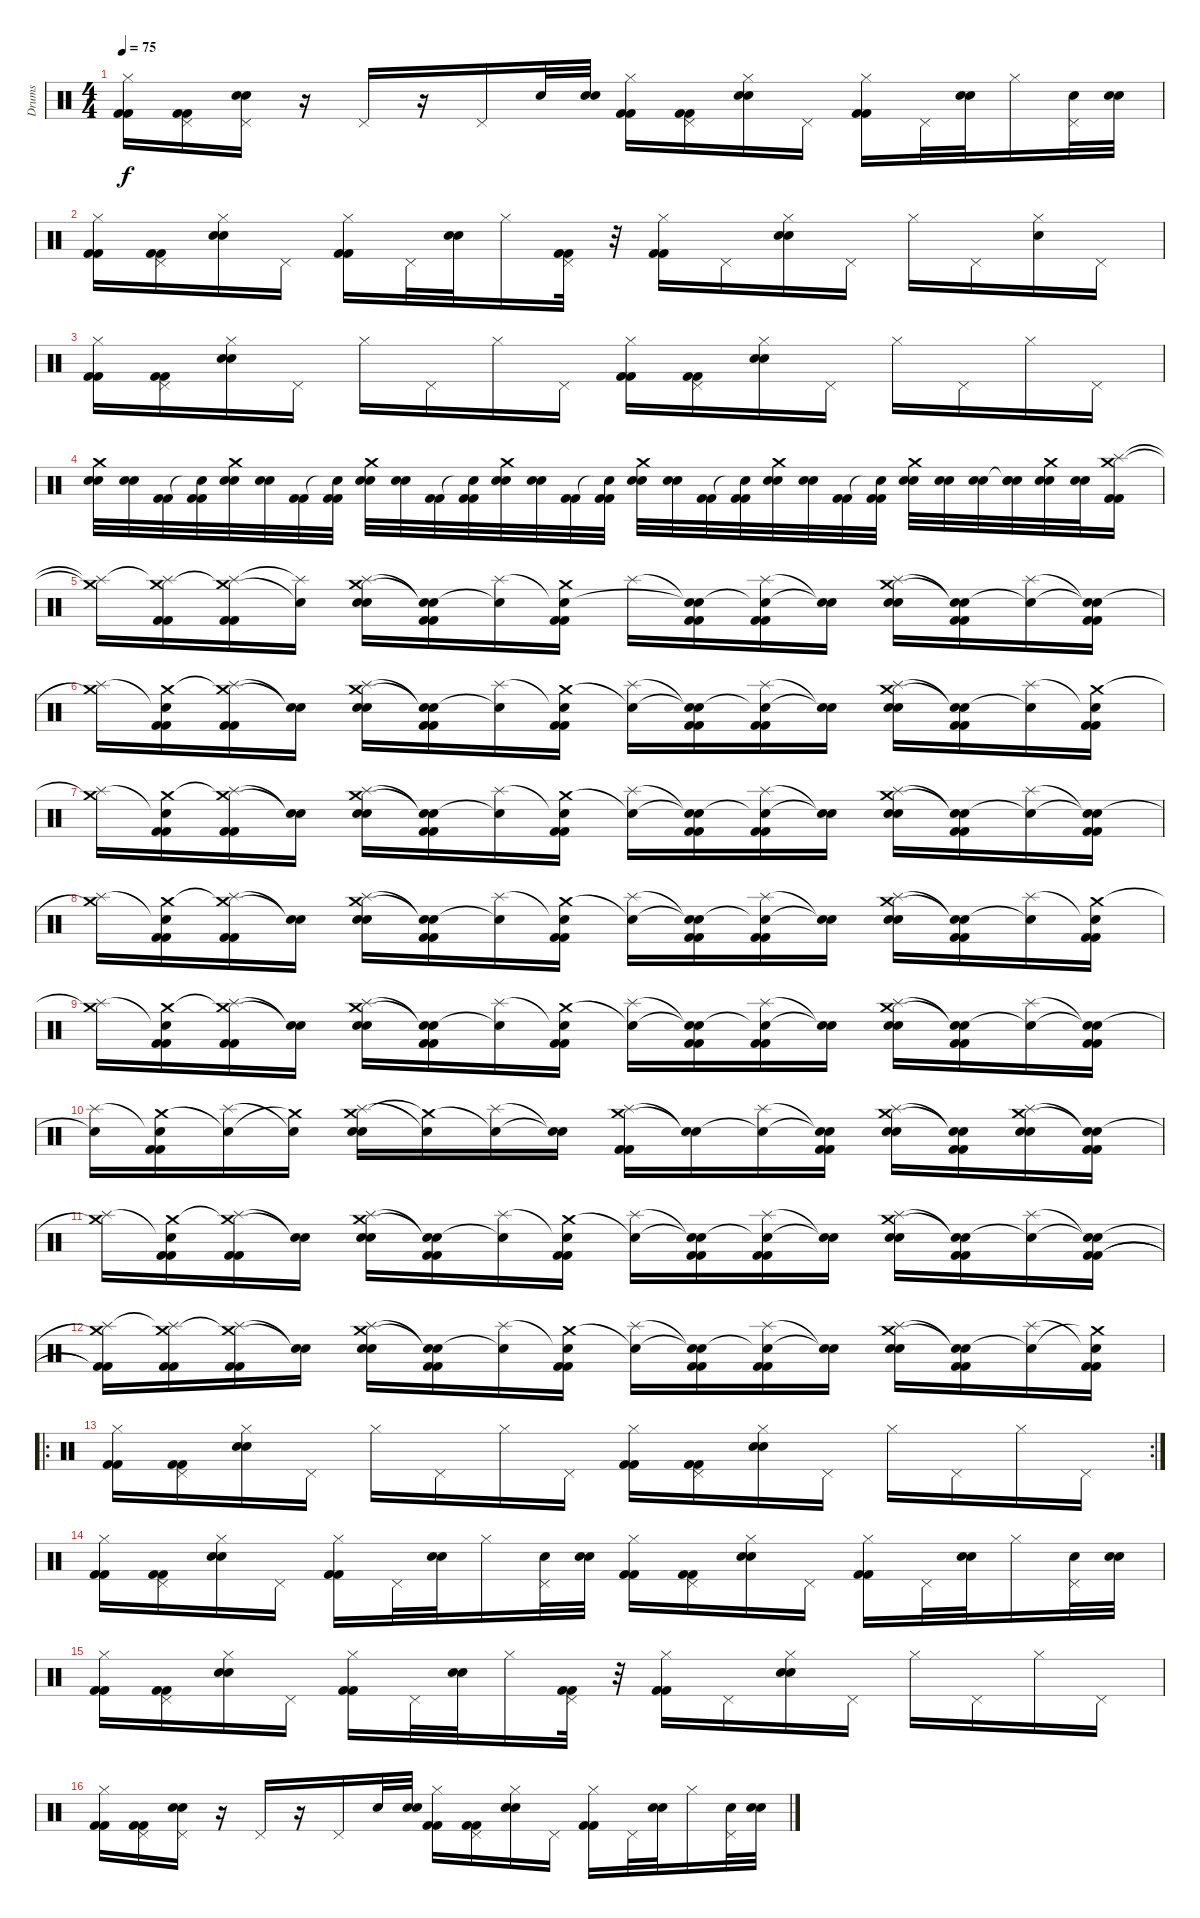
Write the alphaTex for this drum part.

\track ("Drums" "Drums") {instrument percussion}
\staff {score}
\articulation defaults
\ts (4 4)
\tempo 75
\clef neutral
\ks c
("Hi-Hat (closed)" "Kick (hit) 2" "Kick (hit) 2").16{dy f} ("Pedal Hi-Hat (hit)" "Kick (hit) 2" "Kick (hit) 2").16 ("Pedal Hi-Hat (hit)" "Electric Snare (hit)" "Electric Snare (hit)").16 r.16 "Pedal Hi-Hat (hit)".16 r.16 "Pedal Hi-Hat (hit)".16 "Electric Snare (hit)".32 ("Electric Snare (hit)" "Electric Snare (hit)").32 ("Hi-Hat (closed)" "Kick (hit) 2" "Kick (hit) 2").16 ("Pedal Hi-Hat (hit)" "Kick (hit) 2" "Kick (hit) 2").16 ("Hi-Hat (closed)" "Electric Snare (hit)" "Electric Snare (hit)").16 "Pedal Hi-Hat (hit)".16 ("Hi-Hat (closed)" "Kick (hit) 2" "Kick (hit) 2").16 "Pedal Hi-Hat (hit)".32 ("Electric Snare (hit)" "Electric Snare (hit)").32 "Hi-Hat (closed)".16 ("Pedal Hi-Hat (hit)" "Electric Snare (hit)").32 ("Electric Snare (hit)" "Electric Snare (hit)").32 |
("Hi-Hat (closed)" "Kick (hit) 2" "Kick (hit) 2").16 ("Pedal Hi-Hat (hit)" "Kick (hit) 2" "Kick (hit) 2").16 ("Hi-Hat (closed)" "Electric Snare (hit)" "Electric Snare (hit)").16 "Pedal Hi-Hat (hit)".16 ("Hi-Hat (closed)" "Kick (hit) 2" "Kick (hit) 2").16 "Pedal Hi-Hat (hit)".32 ("Electric Snare (hit)" "Electric Snare (hit)").32 "Hi-Hat (closed)".16 ("Pedal Hi-Hat (hit)" "Kick (hit) 2" "Kick (hit) 2").32 r.32 ("Hi-Hat (closed)" "Kick (hit) 2" "Kick (hit) 2").16 "Pedal Hi-Hat (hit)".16 ("Hi-Hat (closed)" "Electric Snare (hit)" "Electric Snare (hit)").16 "Pedal Hi-Hat (hit)".16 "Hi-Hat (closed)".16 "Pedal Hi-Hat (hit)".16 ("Hi-Hat (closed)" "Electric Snare (hit)").16 "Pedal Hi-Hat (hit)".16 |
("Hi-Hat (closed)" "Kick (hit) 2" "Kick (hit) 2").16 ("Pedal Hi-Hat (hit)" "Kick (hit) 2" "Kick (hit) 2").16 ("Hi-Hat (closed)" "Electric Snare (hit)" "Electric Snare (hit)").16 "Pedal Hi-Hat (hit)".16 "Hi-Hat (closed)".16 "Pedal Hi-Hat (hit)".16 "Hi-Hat (closed)".16 "Pedal Hi-Hat (hit)".16 ("Hi-Hat (closed)" "Kick (hit) 2" "Kick (hit) 2").16 ("Pedal Hi-Hat (hit)" "Kick (hit) 2" "Kick (hit) 2").16 ("Hi-Hat (closed)" "Electric Snare (hit)" "Electric Snare (hit)").16 "Pedal Hi-Hat (hit)".16 "Hi-Hat (closed)".16 "Pedal Hi-Hat (hit)".16 "Hi-Hat (closed)".16 "Pedal Hi-Hat (hit)".16 |
("Crash medium (hit)" "Electric Snare (hit)" "Electric Snare (hit)").32 ("Electric Snare (hit)" "Electric Snare (hit)").32 ("Kick (hit) 2" "Kick (hit) 2").32 ("Snare (hit)"{t} "Kick (hit) 2" "Kick (hit) 2").32 ("Crash medium (hit)" "Electric Snare (hit)" "Electric Snare (hit)").32 ("Electric Snare (hit)" "Electric Snare (hit)").32 ("Kick (hit) 2" "Kick (hit) 2").32 ("Snare (hit)"{t} "Kick (hit) 2" "Kick (hit) 2").32 ("Crash medium (hit)" "Electric Snare (hit)" "Electric Snare (hit)").32 ("Electric Snare (hit)" "Electric Snare (hit)").32 ("Kick (hit) 2" "Kick (hit) 2").32 ("Snare (hit)"{t} "Kick (hit) 2" "Kick (hit) 2").32 ("Crash medium (hit)" "Electric Snare (hit)" "Electric Snare (hit)").32 ("Electric Snare (hit)" "Electric Snare (hit)").32 ("Kick (hit) 2" "Kick (hit) 2").32 ("Snare (hit)"{t} "Kick (hit) 2" "Kick (hit) 2").32 ("Crash medium (hit)" "Electric Snare (hit)" "Electric Snare (hit)").32 ("Electric Snare (hit)" "Electric Snare (hit)").32 ("Kick (hit) 2" "Kick (hit) 2").32 ("Snare (hit)"{t} "Kick (hit) 2" "Kick (hit) 2").32 ("Crash medium (hit)" "Electric Snare (hit)" "Electric Snare (hit)").32 ("Electric Snare (hit)" "Electric Snare (hit)").32 ("Kick (hit) 2" "Kick (hit) 2").32 ("Snare (hit)"{t} "Kick (hit) 2" "Kick (hit) 2").32 ("Crash medium (hit)" "Electric Snare (hit)" "Electric Snare (hit)").32 ("Electric Snare (hit)" "Electric Snare (hit)").32 ("Electric Snare (hit)" "Electric Snare (hit)").32 ("Snare (hit)"{t} "Electric Snare (hit)" "Electric Snare (hit)").32 ("Crash medium (hit)" "Electric Snare (hit)" "Electric Snare (hit)").32 ("Electric Snare (hit)" "Electric Snare (hit)").32 ("Crash medium (hit)" "Splash (hit)" "Kick (hit) 2" "Kick (hit) 2").16 |
("Crash medium (hit)"{t} "Splash (hit)"{t}).16 ("Crash medium (hit)" "Splash (hit)"{t} "Kick (hit) 2" "Kick (hit) 2").16 ("Crash medium (hit)"{t} "Splash (hit)" "Kick (hit) 2" "Kick (hit) 2").16 ("Snare (hit)"{t} "Splash (hit)"{t}).16 ("Crash medium (hit)" "Splash (hit)" "Electric Snare (hit)" "Electric Snare (hit)").16 ("Snare (hit)"{t} "Snare (hit)"{t} "Kick (hit) 2" "Kick (hit) 2").16 ("Snare (hit)"{t} "Splash (hit)").16 ("Crash medium (hit)" "Snare (hit)"{t} "Kick (hit) 2" "Kick (hit) 2").16 "Splash (hit)".16 ("Snare (hit)"{t} "Snare (hit)"{t} "Kick (hit) 2" "Kick (hit) 2").16 ("Snare (hit)"{t} "Splash (hit)" "Kick (hit) 2" "Kick (hit) 2").16 ("Snare (hit)"{t} "Snare (hit)"{t}).16 ("Crash medium (hit)" "Splash (hit)" "Electric Snare (hit)" "Electric Snare (hit)").16 ("Snare (hit)"{t} "Snare (hit)"{t} "Kick (hit) 2" "Kick (hit) 2").16 ("Snare (hit)"{t} "Splash (hit)").16 ("Snare (hit)"{t} "Snare (hit)"{t} "Kick (hit) 2" "Kick (hit) 2").16 |
("Crash medium (hit)"{t} "Splash (hit)").16 ("Crash medium (hit)" "Snare (hit)"{t} "Kick (hit) 2" "Kick (hit) 2").16 ("Crash medium (hit)"{t} "Splash (hit)" "Kick (hit) 2" "Kick (hit) 2").16 ("Snare (hit)"{t} "Snare (hit)"{t}).16 ("Crash medium (hit)" "Splash (hit)" "Electric Snare (hit)" "Electric Snare (hit)").16 ("Snare (hit)"{t} "Snare (hit)"{t} "Kick (hit) 2" "Kick (hit) 2").16 ("Snare (hit)"{t} "Splash (hit)").16 ("Crash medium (hit)" "Snare (hit)"{t} "Kick (hit) 2" "Kick (hit) 2").16 ("Snare (hit)"{t} "Splash (hit)").16 ("Snare (hit)"{t} "Snare (hit)"{t} "Kick (hit) 2" "Kick (hit) 2").16 ("Snare (hit)"{t} "Splash (hit)" "Kick (hit) 2" "Kick (hit) 2").16 ("Snare (hit)"{t} "Snare (hit)"{t}).16 ("Crash medium (hit)" "Splash (hit)" "Electric Snare (hit)" "Electric Snare (hit)").16 ("Snare (hit)"{t} "Snare (hit)"{t} "Kick (hit) 2" "Kick (hit) 2").16 ("Snare (hit)"{t} "Splash (hit)").16 ("Crash medium (hit)" "Snare (hit)"{t} "Kick (hit) 2" "Kick (hit) 2").16 |
("Crash medium (hit)"{t} "Splash (hit)").16 ("Crash medium (hit)" "Snare (hit)"{t} "Kick (hit) 2" "Kick (hit) 2").16 ("Crash medium (hit)"{t} "Splash (hit)" "Kick (hit) 2" "Kick (hit) 2").16 ("Snare (hit)"{t} "Snare (hit)"{t}).16 ("Crash medium (hit)" "Splash (hit)" "Electric Snare (hit)" "Electric Snare (hit)").16 ("Snare (hit)"{t} "Snare (hit)"{t} "Kick (hit) 2" "Kick (hit) 2").16 ("Snare (hit)"{t} "Splash (hit)").16 ("Crash medium (hit)" "Snare (hit)"{t} "Kick (hit) 2" "Kick (hit) 2").16 ("Snare (hit)"{t} "Splash (hit)").16 ("Snare (hit)"{t} "Snare (hit)"{t} "Kick (hit) 2" "Kick (hit) 2").16 ("Snare (hit)"{t} "Splash (hit)" "Kick (hit) 2" "Kick (hit) 2").16 ("Snare (hit)"{t} "Snare (hit)"{t}).16 ("Crash medium (hit)" "Splash (hit)" "Electric Snare (hit)" "Electric Snare (hit)").16 ("Snare (hit)"{t} "Snare (hit)"{t} "Kick (hit) 2" "Kick (hit) 2").16 ("Snare (hit)"{t} "Splash (hit)").16 ("Snare (hit)"{t} "Snare (hit)"{t} "Kick (hit) 2" "Kick (hit) 2").16 |
("Crash medium (hit)"{t} "Splash (hit)").16 ("Crash medium (hit)" "Snare (hit)"{t} "Kick (hit) 2" "Kick (hit) 2").16 ("Crash medium (hit)"{t} "Splash (hit)" "Kick (hit) 2" "Kick (hit) 2").16 ("Snare (hit)"{t} "Snare (hit)"{t}).16 ("Crash medium (hit)" "Splash (hit)" "Electric Snare (hit)" "Electric Snare (hit)").16 ("Snare (hit)"{t} "Snare (hit)"{t} "Kick (hit) 2" "Kick (hit) 2").16 ("Snare (hit)"{t} "Splash (hit)").16 ("Crash medium (hit)" "Snare (hit)"{t} "Kick (hit) 2" "Kick (hit) 2").16 ("Snare (hit)"{t} "Splash (hit)").16 ("Snare (hit)"{t} "Snare (hit)"{t} "Kick (hit) 2" "Kick (hit) 2").16 ("Snare (hit)"{t} "Splash (hit)" "Kick (hit) 2" "Kick (hit) 2").16 ("Snare (hit)"{t} "Snare (hit)"{t}).16 ("Crash medium (hit)" "Splash (hit)" "Electric Snare (hit)" "Electric Snare (hit)").16 ("Snare (hit)"{t} "Snare (hit)"{t} "Kick (hit) 2" "Kick (hit) 2").16 ("Snare (hit)"{t} "Splash (hit)").16 ("Crash medium (hit)" "Snare (hit)"{t} "Kick (hit) 2" "Kick (hit) 2").16 |
("Crash medium (hit)"{t} "Splash (hit)").16 ("Crash medium (hit)" "Snare (hit)"{t} "Kick (hit) 2" "Kick (hit) 2").16 ("Crash medium (hit)"{t} "Splash (hit)" "Kick (hit) 2" "Kick (hit) 2").16 ("Snare (hit)"{t} "Snare (hit)"{t}).16 ("Crash medium (hit)" "Splash (hit)" "Electric Snare (hit)" "Electric Snare (hit)").16 ("Snare (hit)"{t} "Snare (hit)"{t} "Kick (hit) 2" "Kick (hit) 2").16 ("Snare (hit)"{t} "Splash (hit)").16 ("Crash medium (hit)" "Snare (hit)"{t} "Kick (hit) 2" "Kick (hit) 2").16 ("Snare (hit)"{t} "Splash (hit)").16 ("Snare (hit)"{t} "Snare (hit)"{t} "Kick (hit) 2" "Kick (hit) 2").16 ("Snare (hit)"{t} "Splash (hit)" "Kick (hit) 2" "Kick (hit) 2").16 ("Snare (hit)"{t} "Snare (hit)"{t}).16 ("Crash medium (hit)" "Splash (hit)" "Electric Snare (hit)" "Electric Snare (hit)").16 ("Snare (hit)"{t} "Snare (hit)"{t} "Kick (hit) 2" "Kick (hit) 2").16 ("Snare (hit)"{t} "Splash (hit)").16 ("Snare (hit)"{t} "Snare (hit)"{t} "Kick (hit) 2" "Kick (hit) 2").16 |
("Snare (hit)"{t} "Splash (hit)").16 ("Crash medium (hit)" "Snare (hit)"{t} "Kick (hit) 2" "Kick (hit) 2").16 ("Snare (hit)"{t} "Splash (hit)").16 ("Crash medium (hit)"{t} "Snare (hit)"{t}).16 ("Crash medium (hit)" "Splash (hit)" "Electric Snare (hit)" "Electric Snare (hit)").16 ("Crash medium (hit)"{t} "Snare (hit)"{t}).16 ("Snare (hit)"{t} "Splash (hit)").16 ("Snare (hit)"{t} "Snare (hit)"{t}).16 ("Crash medium (hit)" "Splash (hit)" "Kick (hit) 2" "Kick (hit) 2").16 ("Snare (hit)"{t} "Snare (hit)"{t}).16 ("Snare (hit)"{t} "Splash (hit)").16 ("Snare (hit)"{t} "Snare (hit)"{t} "Kick (hit) 2" "Kick (hit) 2").16 ("Crash medium (hit)" "Splash (hit)" "Electric Snare (hit)" "Electric Snare (hit)").16 ("Snare (hit)"{t} "Snare (hit)"{t} "Kick (hit) 2" "Kick (hit) 2").16 ("Crash medium (hit)" "Splash (hit)" "Electric Snare (hit)" "Electric Snare (hit)").16 ("Snare (hit)"{t} "Snare (hit)"{t} "Kick (hit) 2" "Kick (hit) 2").16 |
("Crash medium (hit)"{t} "Splash (hit)").16 ("Crash medium (hit)" "Snare (hit)"{t} "Kick (hit) 2" "Kick (hit) 2").16 ("Crash medium (hit)"{t} "Splash (hit)" "Kick (hit) 2" "Kick (hit) 2").16 ("Snare (hit)"{t} "Snare (hit)"{t}).16 ("Crash medium (hit)" "Splash (hit)" "Electric Snare (hit)" "Electric Snare (hit)").16 ("Snare (hit)"{t} "Snare (hit)"{t} "Kick (hit) 2" "Kick (hit) 2").16 ("Snare (hit)"{t} "Splash (hit)").16 ("Crash medium (hit)" "Snare (hit)"{t} "Kick (hit) 2" "Kick (hit) 2").16 ("Snare (hit)"{t} "Splash (hit)").16 ("Snare (hit)"{t} "Snare (hit)"{t} "Kick (hit) 2" "Kick (hit) 2").16 ("Snare (hit)"{t} "Splash (hit)" "Kick (hit) 2" "Kick (hit) 2").16 ("Snare (hit)"{t} "Snare (hit)"{t}).16 ("Crash medium (hit)" "Splash (hit)" "Electric Snare (hit)" "Electric Snare (hit)").16 ("Snare (hit)"{t} "Snare (hit)"{t} "Kick (hit) 2" "Kick (hit) 2").16 ("Snare (hit)"{t} "Splash (hit)").16 ("Snare (hit)"{t} "Snare (hit)"{t} "Kick (hit) 2" "Kick (hit) 2").16 |
("Crash medium (hit)"{t} "Splash (hit)" "Kick (hit) 2"{t} "Kick (hit) 2"{t}).16 ("Crash medium (hit)" "Splash (hit)"{t} "Kick (hit) 2" "Kick (hit) 2").16 ("Crash medium (hit)"{t} "Splash (hit)" "Kick (hit) 2" "Kick (hit) 2").16 ("Snare (hit)"{t} "Snare (hit)"{t}).16 ("Crash medium (hit)" "Splash (hit)" "Electric Snare (hit)" "Electric Snare (hit)").16 ("Snare (hit)"{t} "Snare (hit)"{t} "Kick (hit) 2" "Kick (hit) 2").16 ("Snare (hit)"{t} "Splash (hit)").16 ("Crash medium (hit)" "Snare (hit)"{t} "Kick (hit) 2" "Kick (hit) 2").16 ("Snare (hit)"{t} "Splash (hit)").16 ("Snare (hit)"{t} "Snare (hit)"{t} "Kick (hit) 2" "Kick (hit) 2").16 ("Snare (hit)"{t} "Splash (hit)" "Kick (hit) 2" "Kick (hit) 2").16 ("Snare (hit)"{t} "Snare (hit)"{t}).16 ("Crash medium (hit)" "Splash (hit)" "Electric Snare (hit)" "Electric Snare (hit)").16 ("Snare (hit)"{t} "Snare (hit)"{t} "Kick (hit) 2" "Kick (hit) 2").16 ("Snare (hit)"{t} "Splash (hit)").16 ("Crash medium (hit)"{t} "Snare (hit)"{t} "Kick (hit) 2" "Kick (hit) 2").16 |
\ro
\rc 2
("Hi-Hat (closed)" "Kick (hit) 2" "Kick (hit) 2").16 ("Pedal Hi-Hat (hit)" "Kick (hit) 2" "Kick (hit) 2").16 ("Hi-Hat (closed)" "Electric Snare (hit)" "Electric Snare (hit)").16 "Pedal Hi-Hat (hit)".16 "Hi-Hat (closed)".16 "Pedal Hi-Hat (hit)".16 "Hi-Hat (closed)".16 "Pedal Hi-Hat (hit)".16 ("Hi-Hat (closed)" "Kick (hit) 2" "Kick (hit) 2").16 ("Pedal Hi-Hat (hit)" "Kick (hit) 2" "Kick (hit) 2").16 ("Hi-Hat (closed)" "Electric Snare (hit)" "Electric Snare (hit)").16 "Pedal Hi-Hat (hit)".16 "Hi-Hat (closed)".16 "Pedal Hi-Hat (hit)".16 "Hi-Hat (closed)".16 "Pedal Hi-Hat (hit)".16 |
("Hi-Hat (closed)" "Kick (hit) 2" "Kick (hit) 2").16 ("Pedal Hi-Hat (hit)" "Kick (hit) 2" "Kick (hit) 2").16 ("Hi-Hat (closed)" "Electric Snare (hit)" "Electric Snare (hit)").16 "Pedal Hi-Hat (hit)".16 ("Hi-Hat (closed)" "Kick (hit) 2" "Kick (hit) 2").16 "Pedal Hi-Hat (hit)".32 ("Electric Snare (hit)" "Electric Snare (hit)").32 "Hi-Hat (closed)".16 ("Pedal Hi-Hat (hit)" "Electric Snare (hit)").32 ("Electric Snare (hit)" "Electric Snare (hit)").32 ("Hi-Hat (closed)" "Kick (hit) 2" "Kick (hit) 2").16 ("Pedal Hi-Hat (hit)" "Kick (hit) 2" "Kick (hit) 2").16 ("Hi-Hat (closed)" "Electric Snare (hit)" "Electric Snare (hit)").16 "Pedal Hi-Hat (hit)".16 ("Hi-Hat (closed)" "Kick (hit) 2" "Kick (hit) 2").16 "Pedal Hi-Hat (hit)".32 ("Electric Snare (hit)" "Electric Snare (hit)").32 "Hi-Hat (closed)".16 ("Pedal Hi-Hat (hit)" "Electric Snare (hit)").32 ("Electric Snare (hit)" "Electric Snare (hit)").32 |
("Hi-Hat (closed)" "Kick (hit) 2" "Kick (hit) 2").16 ("Pedal Hi-Hat (hit)" "Kick (hit) 2" "Kick (hit) 2").16 ("Hi-Hat (closed)" "Electric Snare (hit)" "Electric Snare (hit)").16 "Pedal Hi-Hat (hit)".16 ("Hi-Hat (closed)" "Kick (hit) 2" "Kick (hit) 2").16 "Pedal Hi-Hat (hit)".32 ("Electric Snare (hit)" "Electric Snare (hit)").32 "Hi-Hat (closed)".16 ("Pedal Hi-Hat (hit)" "Kick (hit) 2" "Kick (hit) 2").32 r.32 ("Hi-Hat (closed)" "Kick (hit) 2" "Kick (hit) 2").16 "Pedal Hi-Hat (hit)".16 ("Hi-Hat (closed)" "Electric Snare (hit)" "Electric Snare (hit)").16 "Pedal Hi-Hat (hit)".16 "Hi-Hat (closed)".16 "Pedal Hi-Hat (hit)".16 "Hi-Hat (closed)".16 "Pedal Hi-Hat (hit)".16 |
("Hi-Hat (closed)" "Kick (hit) 2" "Kick (hit) 2").16 ("Pedal Hi-Hat (hit)" "Kick (hit) 2" "Kick (hit) 2").16 ("Pedal Hi-Hat (hit)" "Electric Snare (hit)" "Electric Snare (hit)").16 r.16 "Pedal Hi-Hat (hit)".16 r.16 "Pedal Hi-Hat (hit)".16 "Electric Snare (hit)".32 ("Electric Snare (hit)" "Electric Snare (hit)").32 ("Hi-Hat (closed)" "Kick (hit) 2" "Kick (hit) 2").16 ("Pedal Hi-Hat (hit)" "Kick (hit) 2" "Kick (hit) 2").16 ("Hi-Hat (closed)" "Electric Snare (hit)" "Electric Snare (hit)").16 "Pedal Hi-Hat (hit)".16 ("Hi-Hat (closed)" "Kick (hit) 2" "Kick (hit) 2").16 "Pedal Hi-Hat (hit)".32 ("Electric Snare (hit)" "Electric Snare (hit)").32 "Hi-Hat (closed)".16 ("Pedal Hi-Hat (hit)" "Electric Snare (hit)").32 ("Electric Snare (hit)" "Electric Snare (hit)").32
